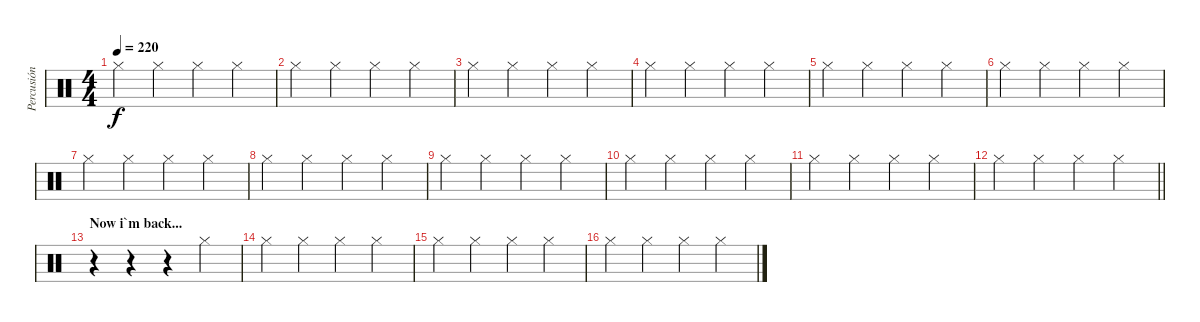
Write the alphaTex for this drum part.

\track ("Percusión" "Percusión") {instrument percussion}
\staff {score}
\articulation defaults
\ts (4 4)
\tempo 220
\clef neutral
\ks c "Hi-Hat (closed)".4{dy f} "Hi-Hat (closed)".4 "Hi-Hat (closed)".4 "Hi-Hat (closed)".4
|
"Hi-Hat (closed)".4 "Hi-Hat (closed)".4 "Hi-Hat (closed)".4 "Hi-Hat (closed)".4 |
"Hi-Hat (closed)".4 "Hi-Hat (closed)".4 "Hi-Hat (closed)".4 "Hi-Hat (closed)".4 |
"Hi-Hat (closed)".4 "Hi-Hat (closed)".4 "Hi-Hat (closed)".4 "Hi-Hat (closed)".4 |
"Hi-Hat (closed)".4 "Hi-Hat (closed)".4 "Hi-Hat (closed)".4 "Hi-Hat (closed)".4 |
"Hi-Hat (closed)".4 "Hi-Hat (closed)".4 "Hi-Hat (closed)".4 "Hi-Hat (closed)".4 |
"Hi-Hat (closed)".4 "Hi-Hat (closed)".4 "Hi-Hat (closed)".4 "Hi-Hat (closed)".4 |
"Hi-Hat (closed)".4 "Hi-Hat (closed)".4 "Hi-Hat (closed)".4 "Hi-Hat (closed)".4 |
"Hi-Hat (closed)".4 "Hi-Hat (closed)".4 "Hi-Hat (closed)".4 "Hi-Hat (closed)".4 |
"Hi-Hat (closed)".4 "Hi-Hat (closed)".4 "Hi-Hat (closed)".4 "Hi-Hat (closed)".4 |
"Hi-Hat (closed)".4 "Hi-Hat (closed)".4 "Hi-Hat (closed)".4 "Hi-Hat (closed)".4 |
\barLineRight lightlight "Hi-Hat (closed)".4 "Hi-Hat (closed)".4 "Hi-Hat (closed)".4 "Hi-Hat (closed)".4
|
\section ("" "Now i`m back...")
r.4 r.4 r.4 "Hi-Hat (closed)".4 |
"Hi-Hat (closed)".4 "Hi-Hat (closed)".4 "Hi-Hat (closed)".4 "Hi-Hat (closed)".4 |
"Hi-Hat (closed)".4 "Hi-Hat (closed)".4 "Hi-Hat (closed)".4 "Hi-Hat (closed)".4 |
"Hi-Hat (closed)".4 "Hi-Hat (closed)".4 "Hi-Hat (closed)".4 "Hi-Hat (closed)".4
